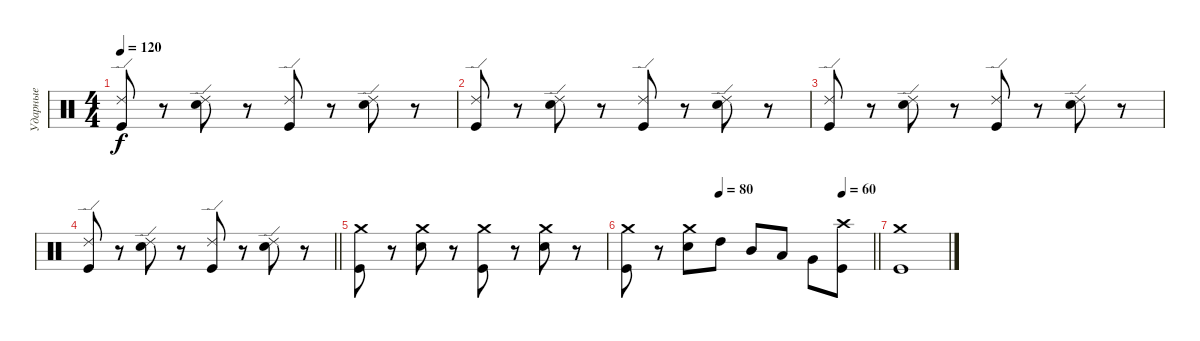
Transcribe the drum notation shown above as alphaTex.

\track ("Ударные" "Ударные") {instrument percussion}
\staff {score}
\articulation defaults
\ts (4 4)
\tempo 120
\clef neutral
\ks c
("Ride (edge) 2" "Kick (hit)").8{dy f} r.8 ("Ride (edge) 2" "Electric Snare (hit)").8 r.8 ("Ride (edge) 2" "Kick (hit)").8 r.8 ("Ride (edge) 2" "Electric Snare (hit)").8 r.8 |
("Ride (edge) 2" "Kick (hit)").8 r.8 ("Ride (edge) 2" "Electric Snare (hit)").8 r.8 ("Ride (edge) 2" "Kick (hit)").8 r.8 ("Ride (edge) 2" "Electric Snare (hit)").8 r.8 |
("Ride (edge) 2" "Kick (hit)").8 r.8 ("Ride (edge) 2" "Electric Snare (hit)").8 r.8 ("Ride (edge) 2" "Kick (hit)").8 r.8 ("Ride (edge) 2" "Electric Snare (hit)").8 r.8 |
\barLineRight lightlight
("Ride (edge) 2" "Kick (hit)").8 r.8 ("Ride (edge) 2" "Electric Snare (hit)").8 r.8 ("Ride (edge) 2" "Kick (hit)").8 r.8 ("Ride (edge) 2" "Electric Snare (hit)").8 r.8 |
("Crash medium (hit)" "Kick (hit)").8 r.8 ("Crash medium (hit)" "Electric Snare (hit)").8 r.8 ("Crash medium (hit)" "Kick (hit)").8 r.8 ("Crash medium (hit)" "Electric Snare (hit)").8 r.8 |
\tempo (80 0.375)
\tempo (60 0.875)
\barLineRight lightlight
("Crash medium (hit)" "Kick (hit)").8 r.8 ("Crash medium (hit)" "Electric Snare (hit)").8 "High Tom (hit)".8 "Mid Tom (hit)".8 "Low Tom (hit)".8 "Very Low Tom (hit)".8 ("Crash high (hit)" "Kick (hit)").8 |
("Crash medium (hit)" "Kick (hit)").1
